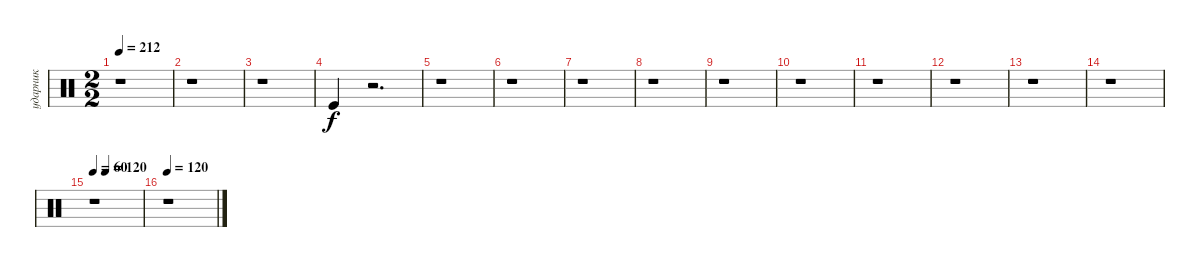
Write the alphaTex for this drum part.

\track ("ударник" "ударник") {instrument percussion}
\staff {score}
\articulation defaults
\ts (2 2)
\tempo 212
\clef neutral
\ks c
r.1{dy f} |
r.1 |
r.1 |
"Kick (hit)".4 r.2{d} |
r.1 |
r.1 |
r.1 |
r.1 |
r.1 |
r.1 |
r.1 |
r.1 |
r.1 |
r.1 |
\tempo 60
\tempo (120 0.25)
r.1 |
\tempo 120
r.1
